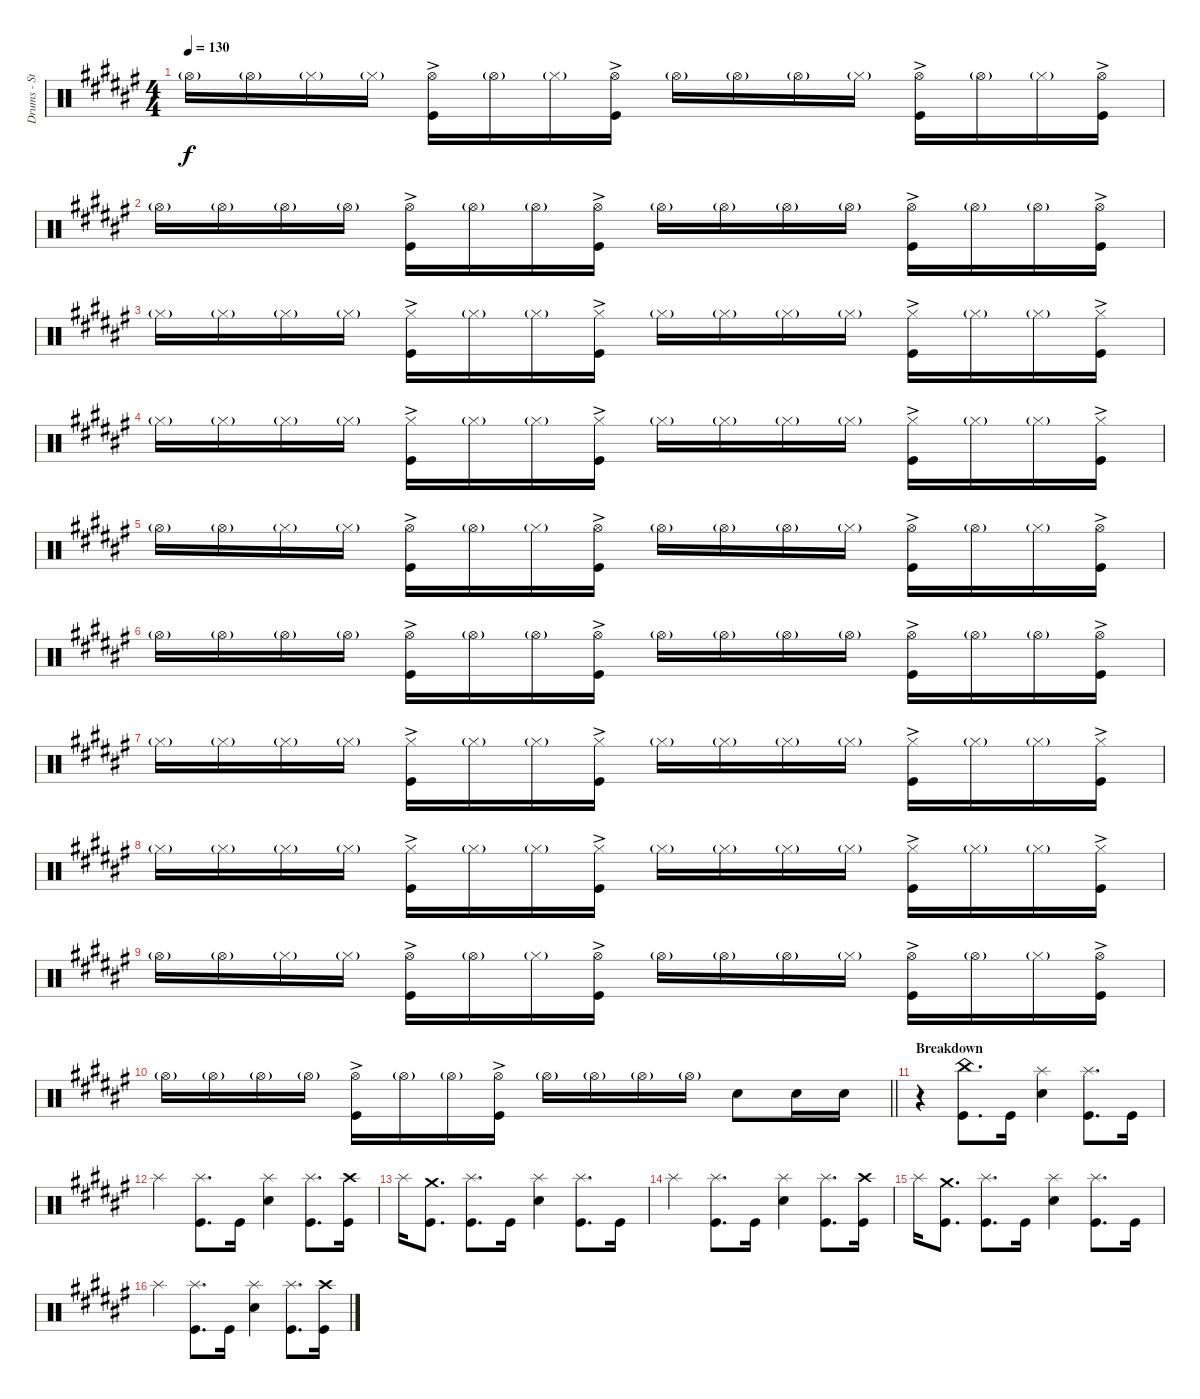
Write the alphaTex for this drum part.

\track ("Drums - Stef Broks" "Drums - St") {instrument percussion}
\staff {score}
\articulation defaults
\ts (4 4)
\tempo 130
\clef neutral
\ks d#minor "Hi-Hat (open)"{g}.16{dy f} "Hi-Hat (open)"{g}.16 "Hi-Hat (closed)"{g}.16 "Hi-Hat (closed)"{g}.16
("Hi-Hat (open)"{ac} "Kick (hit)").16 "Hi-Hat (open)"{g}.16 "Hi-Hat (closed)"{g}.16 ("Hi-Hat (open)"{ac} "Kick (hit)").16 "Hi-Hat (open)"{g}.16 "Hi-Hat (open)"{g}.16 "Hi-Hat (open)"{g}.16 "Hi-Hat (closed)"{g}.16 ("Hi-Hat (open)"{ac} "Kick (hit)").16 "Hi-Hat (open)"{g}.16 "Hi-Hat (closed)"{g}.16 ("Hi-Hat (open)"{ac} "Kick (hit)").16 |
"Hi-Hat (open)"{g}.16 "Hi-Hat (open)"{g}.16 "Hi-Hat (open)"{g}.16 "Hi-Hat (open)"{g}.16 ("Hi-Hat (open)"{ac} "Kick (hit)").16 "Hi-Hat (open)"{g}.16 "Hi-Hat (open)"{g}.16 ("Hi-Hat (open)"{ac} "Kick (hit)").16 "Hi-Hat (open)"{g}.16 "Hi-Hat (open)"{g}.16 "Hi-Hat (open)"{g}.16 "Hi-Hat (open)"{g}.16 ("Hi-Hat (open)"{ac} "Kick (hit)").16 "Hi-Hat (open)"{g}.16 "Hi-Hat (open)"{g}.16 ("Hi-Hat (open)"{ac} "Kick (hit)").16 |
"Hi-Hat (closed)"{g}.16 "Hi-Hat (closed)"{g}.16 "Hi-Hat (closed)"{g}.16 "Hi-Hat (closed)"{g}.16 ("Kick (hit)" "Hi-Hat (closed)"{ac}).16 "Hi-Hat (closed)"{g}.16 "Hi-Hat (closed)"{g}.16 ("Hi-Hat (closed)"{ac} "Kick (hit)").16 "Hi-Hat (closed)"{g}.16 "Hi-Hat (closed)"{g}.16 "Hi-Hat (closed)"{g}.16 "Hi-Hat (closed)"{g}.16 ("Hi-Hat (closed)"{ac} "Kick (hit)").16 "Hi-Hat (closed)"{g}.16 "Hi-Hat (closed)"{g}.16 ("Hi-Hat (closed)"{ac} "Kick (hit)").16 |
"Hi-Hat (closed)"{g}.16 "Hi-Hat (closed)"{g}.16 "Hi-Hat (closed)"{g}.16 "Hi-Hat (closed)"{g}.16 ("Hi-Hat (closed)"{ac} "Kick (hit)").16 "Hi-Hat (closed)"{g}.16 "Hi-Hat (closed)"{g}.16 ("Hi-Hat (closed)"{ac} "Kick (hit)").16 "Hi-Hat (closed)"{g}.16 "Hi-Hat (closed)"{g}.16 "Hi-Hat (closed)"{g}.16 "Hi-Hat (closed)"{g}.16 ("Hi-Hat (closed)"{ac} "Kick (hit)").16 "Hi-Hat (closed)"{g}.16 "Hi-Hat (closed)"{g}.16 ("Hi-Hat (closed)"{ac} "Kick (hit)").16 |
"Hi-Hat (open)"{g}.16 "Hi-Hat (open)"{g}.16 "Hi-Hat (closed)"{g}.16 "Hi-Hat (closed)"{g}.16 ("Hi-Hat (open)"{ac} "Kick (hit)").16 "Hi-Hat (open)"{g}.16 "Hi-Hat (closed)"{g}.16 ("Hi-Hat (open)"{ac} "Kick (hit)").16 "Hi-Hat (open)"{g}.16 "Hi-Hat (open)"{g}.16 "Hi-Hat (open)"{g}.16 "Hi-Hat (closed)"{g}.16 ("Hi-Hat (open)"{ac} "Kick (hit)").16 "Hi-Hat (open)"{g}.16 "Hi-Hat (closed)"{g}.16 ("Hi-Hat (open)"{ac} "Kick (hit)").16 |
"Hi-Hat (open)"{g}.16 "Hi-Hat (open)"{g}.16 "Hi-Hat (open)"{g}.16 "Hi-Hat (open)"{g}.16 ("Hi-Hat (open)"{ac} "Kick (hit)").16 "Hi-Hat (open)"{g}.16 "Hi-Hat (open)"{g}.16 ("Hi-Hat (open)"{ac} "Kick (hit)").16 "Hi-Hat (open)"{g}.16 "Hi-Hat (open)"{g}.16 "Hi-Hat (open)"{g}.16 "Hi-Hat (open)"{g}.16 ("Hi-Hat (open)"{ac} "Kick (hit)").16 "Hi-Hat (open)"{g}.16 "Hi-Hat (open)"{g}.16 ("Hi-Hat (open)"{ac} "Kick (hit)").16 |
"Hi-Hat (closed)"{g}.16 "Hi-Hat (closed)"{g}.16 "Hi-Hat (closed)"{g}.16 "Hi-Hat (closed)"{g}.16 ("Kick (hit)" "Hi-Hat (closed)"{ac}).16 "Hi-Hat (closed)"{g}.16 "Hi-Hat (closed)"{g}.16 ("Hi-Hat (closed)"{ac} "Kick (hit)").16 "Hi-Hat (closed)"{g}.16 "Hi-Hat (closed)"{g}.16 "Hi-Hat (closed)"{g}.16 "Hi-Hat (closed)"{g}.16 ("Hi-Hat (closed)"{ac} "Kick (hit)").16 "Hi-Hat (closed)"{g}.16 "Hi-Hat (closed)"{g}.16 ("Hi-Hat (closed)"{ac} "Kick (hit)").16 |
"Hi-Hat (closed)"{g}.16 "Hi-Hat (closed)"{g}.16 "Hi-Hat (closed)"{g}.16 "Hi-Hat (closed)"{g}.16 ("Hi-Hat (closed)"{ac} "Kick (hit)").16 "Hi-Hat (closed)"{g}.16 "Hi-Hat (closed)"{g}.16 ("Hi-Hat (closed)"{ac} "Kick (hit)").16 "Hi-Hat (closed)"{g}.16 "Hi-Hat (closed)"{g}.16 "Hi-Hat (closed)"{g}.16 "Hi-Hat (closed)"{g}.16 ("Hi-Hat (closed)"{ac} "Kick (hit)").16 "Hi-Hat (closed)"{g}.16 "Hi-Hat (closed)"{g}.16 ("Hi-Hat (closed)"{ac} "Kick (hit)").16 |
"Hi-Hat (open)"{g}.16 "Hi-Hat (open)"{g}.16 "Hi-Hat (closed)"{g}.16 "Hi-Hat (closed)"{g}.16 ("Hi-Hat (open)"{ac} "Kick (hit)").16 "Hi-Hat (open)"{g}.16 "Hi-Hat (closed)"{g}.16 ("Hi-Hat (open)"{ac} "Kick (hit)").16 "Hi-Hat (open)"{g}.16 "Hi-Hat (open)"{g}.16 "Hi-Hat (open)"{g}.16 "Hi-Hat (closed)"{g}.16 ("Hi-Hat (open)"{ac} "Kick (hit)").16 "Hi-Hat (open)"{g}.16 "Hi-Hat (closed)"{g}.16 ("Hi-Hat (open)"{ac} "Kick (hit)").16 |
\barLineRight lightlight "Hi-Hat (open)"{g}.16 "Hi-Hat (open)"{g}.16 "Hi-Hat (open)"{g}.16 "Hi-Hat (open)"{g}.16
("Hi-Hat (open)"{ac} "Kick (hit)").16 "Hi-Hat (open)"{g}.16 "Hi-Hat (open)"{g}.16 ("Hi-Hat (open)"{ac} "Kick (hit)").16 "Hi-Hat (open)"{g}.16 "Hi-Hat (open)"{g}.16 "Hi-Hat (open)"{g}.16 "Hi-Hat (open)"{g}.16 "Snare (hit) 2".8 "Snare (hit) 2".16 "Snare (hit) 2".16 |
\section ("" "Breakdown")
r.4 ("Kick (hit)" "China (hit)").8{d} "Kick (hit)".16 ("Splash (hit)" "Snare (hit) 2").4 ("Splash (hit)" "Kick (hit)").8{d} "Kick (hit)".16 |
"Splash (hit)".4 ("Splash (hit)" "Kick (hit)").8{d} "Kick (hit)".16 ("Splash (hit)" "Snare (hit) 2").4 ("Kick (hit)" "Splash (hit)").8{d} ("Kick (hit)" "Crash high (hit)").16 |
"Splash (hit)".16 ("Kick (hit)" "Crash medium (hit)").8{d} ("Kick (hit)" "Splash (hit)").8{d} "Kick (hit)".16 ("Splash (hit)" "Snare (hit) 2").4 ("Splash (hit)" "Kick (hit)").8{d} "Kick (hit)".16 |
"Splash (hit)".4 ("Splash (hit)" "Kick (hit)").8{d} "Kick (hit)".16 ("Splash (hit)" "Snare (hit) 2").4 ("Kick (hit)" "Splash (hit)").8{d} ("Kick (hit)" "Crash high (hit)").16 |
"Splash (hit)".16 ("Kick (hit)" "Crash medium (hit)").8{d} ("Kick (hit)" "Splash (hit)").8{d} "Kick (hit)".16 ("Splash (hit)" "Snare (hit) 2").4 ("Splash (hit)" "Kick (hit)").8{d} "Kick (hit)".16 |
"Splash (hit)".4 ("Splash (hit)" "Kick (hit)").8{d} "Kick (hit)".16 ("Splash (hit)" "Snare (hit) 2").4 ("Kick (hit)" "Splash (hit)").8{d} ("Kick (hit)" "Crash high (hit)").16
